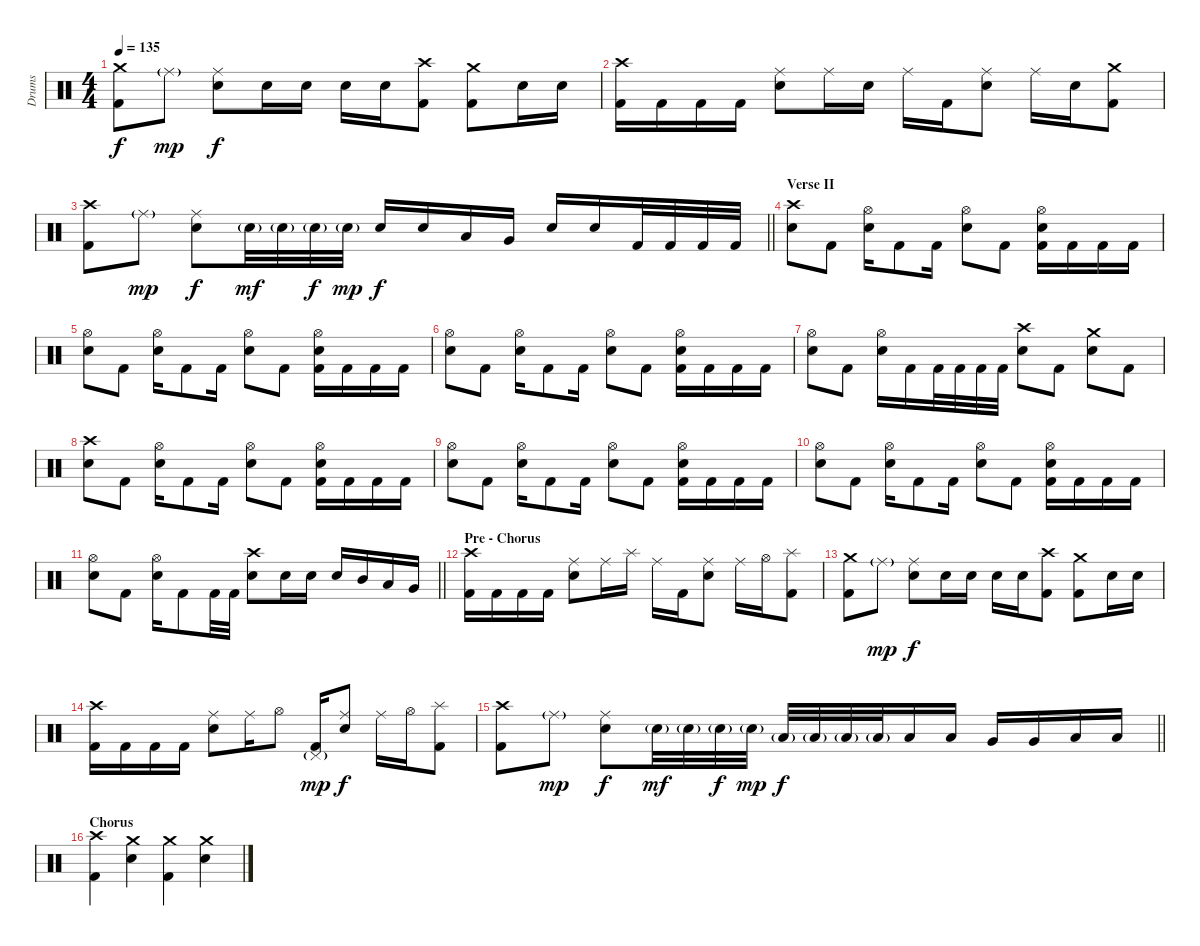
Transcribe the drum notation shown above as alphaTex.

\track ("Drums" "Drums") {instrument percussion}
\staff {score}
\articulation defaults
\ts (4 4)
\tempo 135
\clef neutral
\ks c
("Crash medium (hit)" "Kick (hit) 2").8{dy f} "Ride (middle)"{g}.8{dy mp} ("Ride (middle)" "Electric Snare (hit)").8{dy f} "Electric Snare (hit)".16 "Electric Snare (hit)".16 "Electric Snare (hit)".16 "Electric Snare (hit)".16 ("Crash high (hit)" "Kick (hit) 2").8 ("Crash medium (hit)" "Kick (hit) 2").8 "Electric Snare (hit)".16 "Electric Snare (hit)".16 |
("Crash high (hit)" "Kick (hit) 2").16 "Kick (hit) 2".16 "Kick (hit) 2".16 "Kick (hit) 2".16 ("Ride (middle)" "Electric Snare (hit)").8 "Ride (middle)".16 "Electric Snare (hit)".16 "Ride (middle)".16 "Kick (hit) 2".16 ("Ride (middle)" "Electric Snare (hit)").8 "Ride (middle)".16 "Electric Snare (hit)".16 ("Crash medium (hit)" "Kick (hit) 2").8 |
\barLineRight lightlight
("Crash high (hit)" "Kick (hit) 2").8 "Ride (middle)"{g}.8{dy mp} ("Ride (middle)" "Electric Snare (hit)").8{dy f} "Electric Snare (hit)"{g}.32{dy mf} "Electric Snare (hit)"{g}.32 "Electric Snare (hit)"{g}.32{dy f} "Electric Snare (hit)"{g}.32{dy mp} "Electric Snare (hit)".16{dy f} "Electric Snare (hit)".16 "Low Tom (hit)".16 "Very Low Tom (hit)".16 "Electric Snare (hit)".16 "Electric Snare (hit)".16 "Kick (hit) 2".32 "Kick (hit) 2".32 "Kick (hit) 2".32 "Kick (hit) 2".32 |
\section ("" "Verse II")
("Crash high (hit)" "Electric Snare (hit)").8 "Kick (hit) 2".8 ("Hi-Hat (open)" "Electric Snare (hit)").16 "Kick (hit) 2".8 "Kick (hit) 2".16 ("Hi-Hat (open)" "Electric Snare (hit)").8 "Kick (hit) 2".8 ("Hi-Hat (open)" "Electric Snare (hit)" "Kick (hit) 2").16 "Kick (hit) 2".16 "Kick (hit) 2".16 "Kick (hit) 2".16 |
("Hi-Hat (open)" "Electric Snare (hit)").8 "Kick (hit) 2".8 ("Hi-Hat (open)" "Electric Snare (hit)").16 "Kick (hit) 2".8 "Kick (hit) 2".16 ("Hi-Hat (open)" "Electric Snare (hit)").8 "Kick (hit) 2".8 ("Hi-Hat (open)" "Electric Snare (hit)" "Kick (hit) 2").16 "Kick (hit) 2".16 "Kick (hit) 2".16 "Kick (hit) 2".16 |
("Hi-Hat (open)" "Electric Snare (hit)").8 "Kick (hit) 2".8 ("Hi-Hat (open)" "Electric Snare (hit)").16 "Kick (hit) 2".8 "Kick (hit) 2".16 ("Hi-Hat (open)" "Electric Snare (hit)").8 "Kick (hit) 2".8 ("Hi-Hat (open)" "Electric Snare (hit)" "Kick (hit) 2").16 "Kick (hit) 2".16 "Kick (hit) 2".16 "Kick (hit) 2".16 |
("Hi-Hat (open)" "Electric Snare (hit)").8 "Kick (hit) 2".8 ("Hi-Hat (open)" "Electric Snare (hit)").16 "Kick (hit) 2".16 "Kick (hit) 2".32 "Kick (hit) 2".32 "Kick (hit) 2".32 "Kick (hit) 2".32 ("Crash high (hit)" "Electric Snare (hit)").8 "Kick (hit) 2".8 ("Crash medium (hit)" "Electric Snare (hit)").8 "Kick (hit) 2".8 |
("Crash high (hit)" "Electric Snare (hit)").8 "Kick (hit) 2".8 ("Hi-Hat (open)" "Electric Snare (hit)").16 "Kick (hit) 2".8 "Kick (hit) 2".16 ("Hi-Hat (open)" "Electric Snare (hit)").8 "Kick (hit) 2".8 ("Hi-Hat (open)" "Electric Snare (hit)" "Kick (hit) 2").16 "Kick (hit) 2".16 "Kick (hit) 2".16 "Kick (hit) 2".16 |
("Hi-Hat (open)" "Electric Snare (hit)").8 "Kick (hit) 2".8 ("Hi-Hat (open)" "Electric Snare (hit)").16 "Kick (hit) 2".8 "Kick (hit) 2".16 ("Hi-Hat (open)" "Electric Snare (hit)").8 "Kick (hit) 2".8 ("Hi-Hat (open)" "Electric Snare (hit)" "Kick (hit) 2").16 "Kick (hit) 2".16 "Kick (hit) 2".16 "Kick (hit) 2".16 |
("Hi-Hat (open)" "Electric Snare (hit)").8 "Kick (hit) 2".8 ("Hi-Hat (open)" "Electric Snare (hit)").16 "Kick (hit) 2".8 "Kick (hit) 2".16 ("Hi-Hat (open)" "Electric Snare (hit)").8 "Kick (hit) 2".8 ("Hi-Hat (open)" "Electric Snare (hit)" "Kick (hit) 2").16 "Kick (hit) 2".16 "Kick (hit) 2".16 "Kick (hit) 2".16 |
\barLineRight lightlight
("Hi-Hat (open)" "Electric Snare (hit)").8 "Kick (hit) 2".8 ("Hi-Hat (open)" "Electric Snare (hit)").16 "Kick (hit) 2".8 "Kick (hit) 2".32 "Kick (hit) 2".32 ("Crash high (hit)" "Electric Snare (hit)").8 "Electric Snare (hit)".16 "Electric Snare (hit)".16 "Electric Snare (hit)".16 "Mid Tom (hit)".16 "Low Tom (hit)".16 "Very Low Tom (hit)".16 |
\section ("" "Pre - Chorus")
("Crash high (hit)" "Kick (hit) 2").16 "Kick (hit) 2".16 "Kick (hit) 2".16 "Kick (hit) 2".16 ("Ride (middle)" "Electric Snare (hit)").8 "Ride (middle)".16 "Splash (hit)".16 "Ride (middle)".16 "Kick (hit) 2".16 ("Ride (middle)" "Electric Snare (hit)").8 "Ride (middle)".16 "Hi-Hat (open)".16 ("Splash (hit)" "Kick (hit) 2").8 |
("Crash medium (hit)" "Kick (hit) 2").8 "Ride (middle)"{g}.8{dy mp} ("Ride (middle)" "Electric Snare (hit)").8{dy f} "Electric Snare (hit)".16 "Electric Snare (hit)".16 "Electric Snare (hit)".16 "Electric Snare (hit)".16 ("Crash high (hit)" "Kick (hit) 2").8 ("Crash medium (hit)" "Kick (hit) 2").8 "Electric Snare (hit)".16 "Electric Snare (hit)".16 |
("Crash high (hit)" "Kick (hit) 2").16 "Kick (hit) 2".16 "Kick (hit) 2".16 "Kick (hit) 2".16 ("Ride (middle)" "Electric Snare (hit)").8 "Ride (middle)".16 "Hi-Hat (open)".8 ("Pedal Hi-Hat (hit)"{g} "Kick (hit) 2").16{dy mp} ("Ride (middle)" "Electric Snare (hit)").8{dy f} "Ride (middle)".16 "Hi-Hat (open)".16 ("Splash (hit)" "Kick (hit) 2").8 |
\barLineRight lightlight
("Crash high (hit)" "Kick (hit) 2").8 "Ride (middle)"{g}.8{dy mp} ("Ride (middle)" "Electric Snare (hit)").8{dy f} "Electric Snare (hit)"{g}.32{dy mf} "Electric Snare (hit)"{g}.32 "Electric Snare (hit)"{g}.32{dy f} "Electric Snare (hit)"{g}.32{dy mp} "Low Tom (hit)"{g}.32{dy f} "Low Tom (hit)"{g}.32 "Low Tom (hit)"{g}.32 "Low Tom (hit)"{g}.32 "Low Tom (hit)".16 "Low Tom (hit)".16 "Very Low Tom (hit)".16 "Very Low Tom (hit)".16 "Low Floor Tom (hit)".16 "Low Floor Tom (hit)".16 |
\section ("" "Chorus")
("Crash high (hit)" "Kick (hit) 2").4 ("Crash medium (hit)" "Electric Snare (hit)").4 ("Crash medium (hit)" "Kick (hit) 2").4 ("Crash medium (hit)" "Electric Snare (hit)").4
